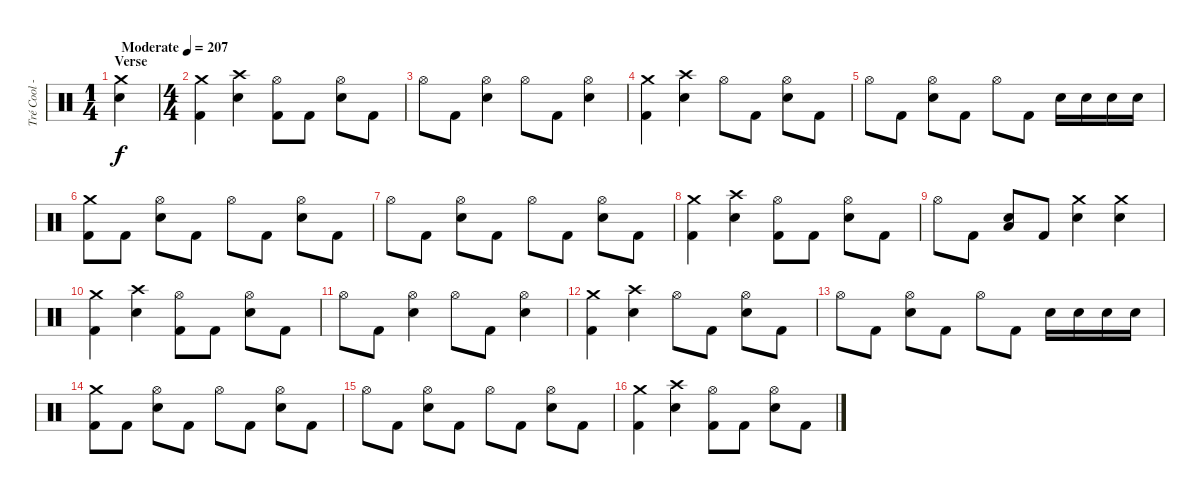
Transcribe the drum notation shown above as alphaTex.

\track ("Tré Cool - Drums" "Tré Cool -") {instrument percussion}
\staff {score}
\articulation defaults
\ts (1 4)
\section ("" "Verse")
\tempo (207 "Moderate")
\clef neutral
\ks c
("Crash medium (hit)" "Electric Snare (hit)").4{dy f} |
\ts (4 4)
("Crash medium (hit)" "Kick (hit) 2").4 ("Crash high (hit)" "Electric Snare (hit)").4 ("Hi-Hat (open)" "Kick (hit) 2").8 "Kick (hit) 2".8 ("Hi-Hat (open)" "Electric Snare (hit)").8 "Kick (hit) 2".8 |
"Hi-Hat (open)".8 "Kick (hit) 2".8 ("Hi-Hat (open)" "Electric Snare (hit)").4 "Hi-Hat (open)".8 "Kick (hit) 2".8 ("Hi-Hat (open)" "Electric Snare (hit)").4 |
("Crash medium (hit)" "Kick (hit) 2").4 ("Crash high (hit)" "Electric Snare (hit)").4 "Hi-Hat (open)".8 "Kick (hit) 2".8 ("Hi-Hat (open)" "Electric Snare (hit)").8 "Kick (hit) 2".8 |
"Hi-Hat (open)".8 "Kick (hit) 2".8 ("Hi-Hat (open)" "Electric Snare (hit)").8 "Kick (hit) 2".8 "Hi-Hat (open)".8 "Kick (hit) 2".8 "Electric Snare (hit)".16 "Electric Snare (hit)".16 "Electric Snare (hit)".16 "Electric Snare (hit)".16 |
("Crash medium (hit)" "Kick (hit) 2").8 "Kick (hit) 2".8 ("Hi-Hat (open)" "Electric Snare (hit)").8 "Kick (hit) 2".8 "Hi-Hat (open)".8 "Kick (hit) 2".8 ("Hi-Hat (open)" "Electric Snare (hit)").8 "Kick (hit) 2".8 |
"Hi-Hat (open)".8 "Kick (hit) 2".8 ("Hi-Hat (open)" "Electric Snare (hit)").8 "Kick (hit) 2".8 "Hi-Hat (open)".8 "Kick (hit) 2".8 ("Hi-Hat (open)" "Electric Snare (hit)").8 "Kick (hit) 2".8 |
("Crash medium (hit)" "Kick (hit) 2").4 ("Crash high (hit)" "Electric Snare (hit)").4 ("Hi-Hat (open)" "Kick (hit) 2").8 "Kick (hit) 2".8 ("Hi-Hat (open)" "Electric Snare (hit)").8 "Kick (hit) 2".8 |
"Hi-Hat (open)".8 "Kick (hit) 2".8 ("Low Floor Tom (hit)" "Electric Snare (hit)").8 "Kick (hit) 2".8 ("Crash medium (hit)" "Electric Snare (hit)").4 ("Crash medium (hit)" "Electric Snare (hit)").4 |
("Crash medium (hit)" "Kick (hit) 2").4 ("Crash high (hit)" "Electric Snare (hit)").4 ("Hi-Hat (open)" "Kick (hit) 2").8 "Kick (hit) 2".8 ("Hi-Hat (open)" "Electric Snare (hit)").8 "Kick (hit) 2".8 |
"Hi-Hat (open)".8 "Kick (hit) 2".8 ("Hi-Hat (open)" "Electric Snare (hit)").4 "Hi-Hat (open)".8 "Kick (hit) 2".8 ("Hi-Hat (open)" "Electric Snare (hit)").4 |
("Crash medium (hit)" "Kick (hit) 2").4 ("Crash high (hit)" "Electric Snare (hit)").4 "Hi-Hat (open)".8 "Kick (hit) 2".8 ("Hi-Hat (open)" "Electric Snare (hit)").8 "Kick (hit) 2".8 |
"Hi-Hat (open)".8 "Kick (hit) 2".8 ("Hi-Hat (open)" "Electric Snare (hit)").8 "Kick (hit) 2".8 "Hi-Hat (open)".8 "Kick (hit) 2".8 "Electric Snare (hit)".16 "Electric Snare (hit)".16 "Electric Snare (hit)".16 "Electric Snare (hit)".16 |
("Crash medium (hit)" "Kick (hit) 2").8 "Kick (hit) 2".8 ("Hi-Hat (open)" "Electric Snare (hit)").8 "Kick (hit) 2".8 "Hi-Hat (open)".8 "Kick (hit) 2".8 ("Hi-Hat (open)" "Electric Snare (hit)").8 "Kick (hit) 2".8 |
"Hi-Hat (open)".8 "Kick (hit) 2".8 ("Hi-Hat (open)" "Electric Snare (hit)").8 "Kick (hit) 2".8 "Hi-Hat (open)".8 "Kick (hit) 2".8 ("Hi-Hat (open)" "Electric Snare (hit)").8 "Kick (hit) 2".8 |
("Crash medium (hit)" "Kick (hit) 2").4 ("Crash high (hit)" "Electric Snare (hit)").4 ("Hi-Hat (open)" "Kick (hit) 2").8 "Kick (hit) 2".8 ("Hi-Hat (open)" "Electric Snare (hit)").8 "Kick (hit) 2".8
